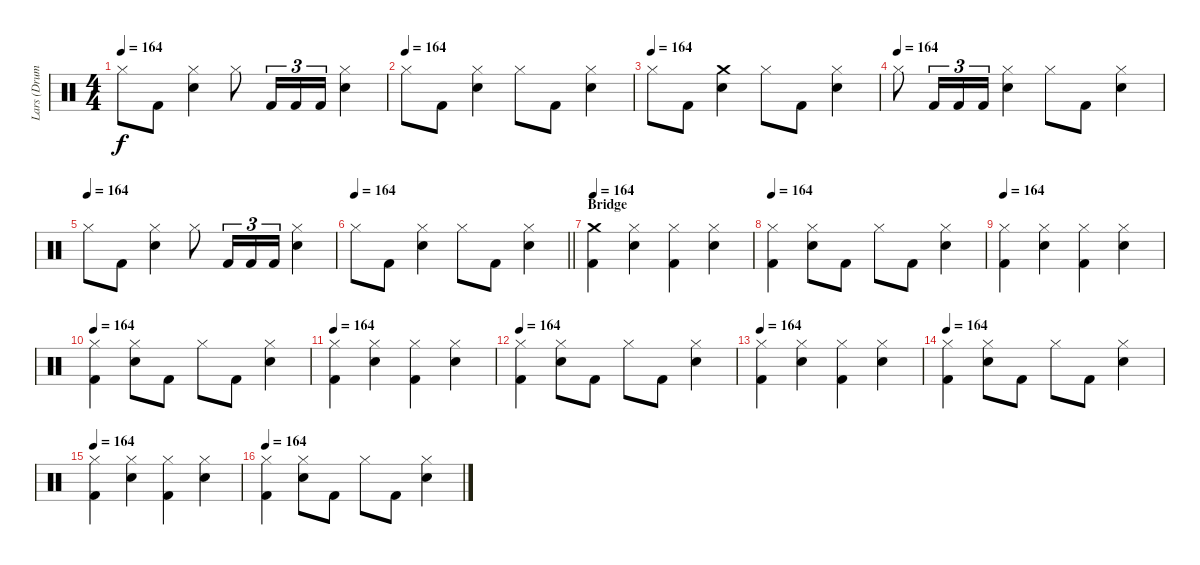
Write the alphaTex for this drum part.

\track ("Lars (Drums)" "Lars (Drum") {instrument percussion}
\staff {score}
\articulation defaults
\ts (4 4)
\tempo 164
\clef neutral
\ks c "Hi-Hat (closed)".8{dy f} "Kick (hit) 2".8
("Snare (hit) 2" "Hi-Hat (closed)").4 "Hi-Hat (closed)".8 "Kick (hit) 2".16{tu (3 2)} "Kick (hit) 2".16{tu (3 2)} "Kick (hit) 2".16{tu (3 2)} ("Snare (hit) 2" "Hi-Hat (closed)").4 |
\tempo (164)
"Hi-Hat (closed)".8 "Kick (hit) 2".8 ("Snare (hit) 2" "Hi-Hat (closed)").4 "Hi-Hat (closed)".8 "Kick (hit) 2".8 ("Snare (hit) 2" "Hi-Hat (closed)").4 |
\tempo (164)
"Hi-Hat (closed)".8 "Kick (hit) 2".8 ("Crash medium (hit)" "Snare (hit) 2").4 "Hi-Hat (closed)".8 "Kick (hit) 2".8 ("Snare (hit) 2" "Hi-Hat (closed)").4 |
\tempo (164)
"Hi-Hat (closed)".8 "Kick (hit) 2".16{tu (3 2)} "Kick (hit) 2".16{tu (3 2)} "Kick (hit) 2".16{tu (3 2)} ("Snare (hit) 2" "Hi-Hat (closed)").4 "Hi-Hat (closed)".8 "Kick (hit) 2".8 ("Snare (hit) 2" "Hi-Hat (closed)").4 |
\tempo (164)
"Hi-Hat (closed)".8 "Kick (hit) 2".8 ("Snare (hit) 2" "Hi-Hat (closed)").4 "Hi-Hat (closed)".8 "Kick (hit) 2".16{tu (3 2)} "Kick (hit) 2".16{tu (3 2)} "Kick (hit) 2".16{tu (3 2)} ("Snare (hit) 2" "Hi-Hat (closed)").4 |
\tempo 164
\barLineRight lightlight "Hi-Hat (closed)".8 "Kick (hit) 2".8
("Snare (hit) 2" "Hi-Hat (closed)").4 "Hi-Hat (closed)".8 "Kick (hit) 2".8 ("Snare (hit) 2" "Hi-Hat (closed)").4 |
\section ("" "Bridge")
\tempo 164
("Kick (hit) 2" "Crash medium (hit)").4 ("Hi-Hat (closed)" "Snare (hit) 2").4 ("Hi-Hat (closed)" "Kick (hit) 2").4 ("Snare (hit) 2" "Hi-Hat (closed)").4 |
\tempo 164
("Hi-Hat (closed)" "Kick (hit) 2").4 ("Snare (hit) 2" "Hi-Hat (closed)").8 "Kick (hit) 2".8 "Hi-Hat (closed)".8 "Kick (hit) 2".8 ("Snare (hit) 2" "Hi-Hat (closed)").4 |
\tempo 164
("Hi-Hat (closed)" "Kick (hit) 2").4 ("Snare (hit) 2" "Hi-Hat (closed)").4 ("Kick (hit) 2" "Hi-Hat (closed)").4 ("Hi-Hat (closed)" "Snare (hit) 2").4 |
\tempo 164
("Kick (hit) 2" "Hi-Hat (closed)").4 ("Snare (hit) 2" "Hi-Hat (closed)").8 "Kick (hit) 2".8 "Hi-Hat (closed)".8 "Kick (hit) 2".8 ("Snare (hit) 2" "Hi-Hat (closed)").4 |
\tempo 164
("Hi-Hat (closed)" "Kick (hit) 2").4 ("Snare (hit) 2" "Hi-Hat (closed)").4 ("Kick (hit) 2" "Hi-Hat (closed)").4 ("Hi-Hat (closed)" "Snare (hit) 2").4 |
\tempo 164
("Kick (hit) 2" "Hi-Hat (closed)").4 ("Snare (hit) 2" "Hi-Hat (closed)").8 "Kick (hit) 2".8 "Hi-Hat (closed)".8 "Kick (hit) 2".8 ("Snare (hit) 2" "Hi-Hat (closed)").4 |
\tempo 164
("Hi-Hat (closed)" "Kick (hit) 2").4 ("Snare (hit) 2" "Hi-Hat (closed)").4 ("Kick (hit) 2" "Hi-Hat (closed)").4 ("Hi-Hat (closed)" "Snare (hit) 2").4 |
\tempo 164
("Kick (hit) 2" "Hi-Hat (closed)").4 ("Snare (hit) 2" "Hi-Hat (closed)").8 "Kick (hit) 2".8 "Hi-Hat (closed)".8 "Kick (hit) 2".8 ("Snare (hit) 2" "Hi-Hat (closed)").4 |
\tempo 164
("Hi-Hat (closed)" "Kick (hit) 2").4 ("Snare (hit) 2" "Hi-Hat (closed)").4 ("Kick (hit) 2" "Hi-Hat (closed)").4 ("Hi-Hat (closed)" "Snare (hit) 2").4 |
\tempo 164
("Kick (hit) 2" "Hi-Hat (closed)").4 ("Snare (hit) 2" "Hi-Hat (closed)").8 "Kick (hit) 2".8 "Hi-Hat (closed)".8 "Kick (hit) 2".8 ("Snare (hit) 2" "Hi-Hat (closed)").4
